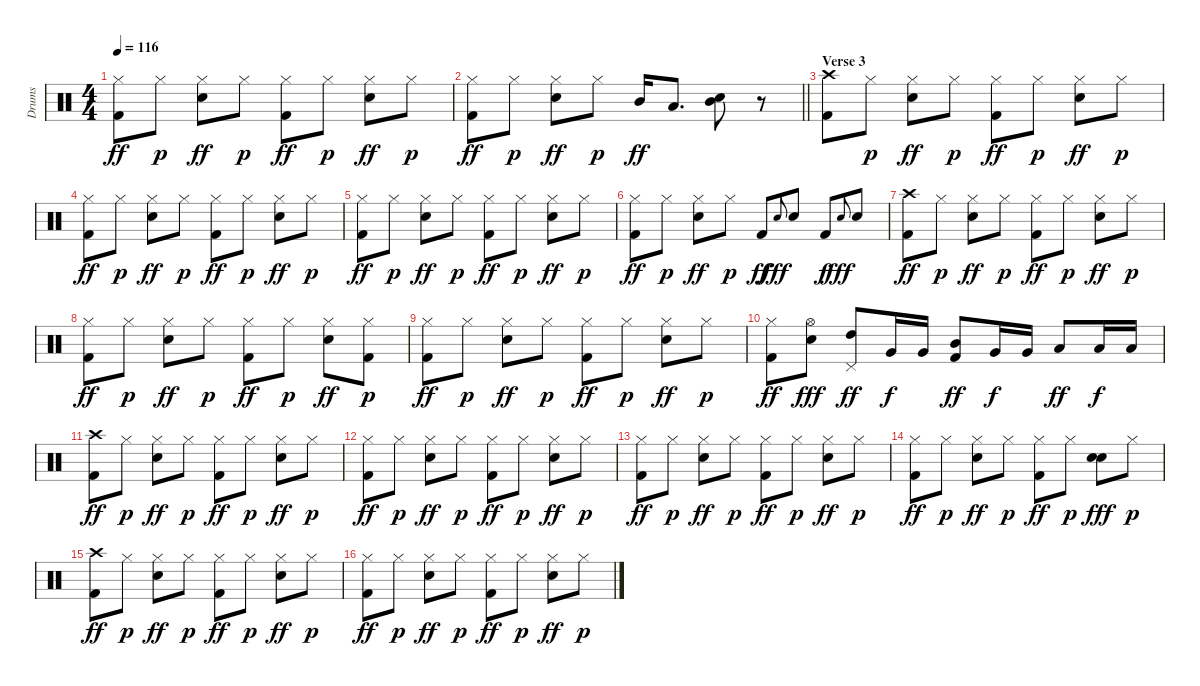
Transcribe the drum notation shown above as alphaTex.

\track ("Drums" "Drums") {instrument percussion}
\staff {score}
\articulation defaults
\ts (4 4)
\tempo 116
\clef neutral
\ks c
("Hi-Hat (closed)" "Kick (hit) 2").8{dy ff} "Hi-Hat (closed)".8{dy p} ("Hi-Hat (closed)" "Snare (hit) 2").8{dy ff} "Hi-Hat (closed)".8{dy p} ("Hi-Hat (closed)" "Kick (hit) 2").8{dy ff} "Hi-Hat (closed)".8{dy p} ("Hi-Hat (closed)" "Snare (hit) 2").8{dy ff} "Hi-Hat (closed)".8{dy p} |
\barLineRight lightlight
("Hi-Hat (closed)" "Kick (hit) 2").8{dy ff} "Hi-Hat (closed)".8{dy p} ("Hi-Hat (closed)" "Snare (hit) 2").8{dy ff} "Hi-Hat (closed)".8{dy p} "Mid Tom (hit)".16{dy ff} "Low Tom (hit)".8{d} ("Mid Tom (hit)" "Snare (hit) 2").8 r.8 |
\section ("" "Verse 3")
("Crash high (hit)" "Kick (hit) 2").8 "Hi-Hat (closed)".8{dy p} ("Hi-Hat (closed)" "Snare (hit) 2").8{dy ff} "Hi-Hat (closed)".8{dy p} ("Hi-Hat (closed)" "Kick (hit) 2").8{dy ff} "Hi-Hat (closed)".8{dy p} ("Hi-Hat (closed)" "Snare (hit) 2").8{dy ff} "Hi-Hat (closed)".8{dy p} |
("Hi-Hat (closed)" "Kick (hit) 2").8{dy ff} "Hi-Hat (closed)".8{dy p} ("Hi-Hat (closed)" "Snare (hit) 2").8{dy ff} "Hi-Hat (closed)".8{dy p} ("Hi-Hat (closed)" "Kick (hit) 2").8{dy ff} "Hi-Hat (closed)".8{dy p} ("Hi-Hat (closed)" "Snare (hit) 2").8{dy ff} "Hi-Hat (closed)".8{dy p} |
("Hi-Hat (closed)" "Kick (hit) 2").8{dy ff} "Hi-Hat (closed)".8{dy p} ("Hi-Hat (closed)" "Snare (hit) 2").8{dy ff} "Hi-Hat (closed)".8{dy p} ("Hi-Hat (closed)" "Kick (hit) 2").8{dy ff} "Hi-Hat (closed)".8{dy p} ("Hi-Hat (closed)" "Snare (hit) 2").8{dy ff} "Hi-Hat (closed)".8{dy p} |
("Hi-Hat (closed)" "Kick (hit) 2").8{dy ff} "Hi-Hat (closed)".8{dy p} ("Hi-Hat (closed)" "Snare (hit) 2").8{dy ff} "Hi-Hat (closed)".8{dy p} "Kick (hit) 2".8{dy ff} "Snare (hit) 2".8{gr onbeat dy fff} "Snare (hit) 2".8 "Kick (hit) 2".8{dy f} "Snare (hit) 2".8{gr onbeat dy fff} "Snare (hit) 2".8 |
("Crash high (hit)" "Kick (hit) 2").8{dy ff} "Hi-Hat (closed)".8{dy p} ("Hi-Hat (closed)" "Snare (hit) 2").8{dy ff} "Hi-Hat (closed)".8{dy p} ("Hi-Hat (closed)" "Kick (hit) 2").8{dy ff} "Hi-Hat (closed)".8{dy p} ("Hi-Hat (closed)" "Snare (hit) 2").8{dy ff} "Hi-Hat (closed)".8{dy p} |
("Hi-Hat (closed)" "Kick (hit) 2").8{dy ff} "Hi-Hat (closed)".8{dy p} ("Hi-Hat (closed)" "Snare (hit) 2").8{dy ff} "Hi-Hat (closed)".8{dy p} ("Hi-Hat (closed)" "Kick (hit) 2").8{dy ff} "Hi-Hat (closed)".8{dy p} ("Hi-Hat (closed)" "Snare (hit) 2").8{dy ff} ("Hi-Hat (closed)" "Kick (hit) 2").8{dy p} |
("Hi-Hat (closed)" "Kick (hit) 2").8{dy ff} "Hi-Hat (closed)".8{dy p} ("Hi-Hat (closed)" "Snare (hit) 2").8{dy ff} "Hi-Hat (closed)".8{dy p} ("Hi-Hat (closed)" "Kick (hit) 2").8{dy ff} "Hi-Hat (closed)".8{dy p} ("Hi-Hat (closed)" "Snare (hit) 2").8{dy ff} "Hi-Hat (closed)".8{dy p} |
("Hi-Hat (closed)" "Kick (hit) 2").8{dy ff} ("Hi-Hat (open)" "Snare (hit) 2").8{dy fff} ("Pedal Hi-Hat (hit)" "High Tom (hit)").8{dy ff} "Very Low Tom (hit)".16{dy f} "Very Low Tom (hit)".16 ("Mid Tom (hit)" "Kick (hit) 2").8{dy ff} "Very Low Tom (hit)".16{dy f} "Very Low Tom (hit)".16 "Low Tom (hit)".8{dy ff} "Low Floor Tom (hit)".16{dy f} "Low Floor Tom (hit)".16 |
("Crash high (hit)" "Kick (hit) 2").8{dy ff} "Hi-Hat (closed)".8{dy p} ("Hi-Hat (closed)" "Snare (hit) 2").8{dy ff} "Hi-Hat (closed)".8{dy p} ("Hi-Hat (closed)" "Kick (hit) 2").8{dy ff} "Hi-Hat (closed)".8{dy p} ("Hi-Hat (closed)" "Snare (hit) 2").8{dy ff} "Hi-Hat (closed)".8{dy p} |
("Hi-Hat (closed)" "Kick (hit) 2").8{dy ff} "Hi-Hat (closed)".8{dy p} ("Hi-Hat (closed)" "Snare (hit) 2").8{dy ff} "Hi-Hat (closed)".8{dy p} ("Hi-Hat (closed)" "Kick (hit) 2").8{dy ff} "Hi-Hat (closed)".8{dy p} ("Hi-Hat (closed)" "Snare (hit) 2").8{dy ff} "Hi-Hat (closed)".8{dy p} |
("Hi-Hat (closed)" "Kick (hit) 2").8{dy ff} "Hi-Hat (closed)".8{dy p} ("Hi-Hat (closed)" "Snare (hit) 2").8{dy ff} "Hi-Hat (closed)".8{dy p} ("Hi-Hat (closed)" "Kick (hit) 2").8{dy ff} "Hi-Hat (closed)".8{dy p} ("Hi-Hat (closed)" "Snare (hit) 2").8{dy ff} "Hi-Hat (closed)".8{dy p} |
("Hi-Hat (closed)" "Kick (hit) 2").8{dy ff} "Hi-Hat (closed)".8{dy p} ("Hi-Hat (closed)" "Snare (hit) 2").8{dy ff} "Hi-Hat (closed)".8{dy p} ("Hi-Hat (closed)" "Kick (hit) 2").8{dy ff} "Hi-Hat (closed)".8{dy p} ("Electric Snare (hit)" "Snare (hit) 2").8{dy fff} "Hi-Hat (closed)".8{dy p} |
("Crash high (hit)" "Kick (hit) 2").8{dy ff} "Hi-Hat (closed)".8{dy p} ("Hi-Hat (closed)" "Snare (hit) 2").8{dy ff} "Hi-Hat (closed)".8{dy p} ("Hi-Hat (closed)" "Kick (hit) 2").8{dy ff} "Hi-Hat (closed)".8{dy p} ("Hi-Hat (closed)" "Snare (hit) 2").8{dy ff} "Hi-Hat (closed)".8{dy p} |
("Hi-Hat (closed)" "Kick (hit) 2").8{dy ff} "Hi-Hat (closed)".8{dy p} ("Hi-Hat (closed)" "Snare (hit) 2").8{dy ff} "Hi-Hat (closed)".8{dy p} ("Hi-Hat (closed)" "Kick (hit) 2").8{dy ff} "Hi-Hat (closed)".8{dy p} ("Hi-Hat (closed)" "Snare (hit) 2").8{dy ff} "Hi-Hat (closed)".8{dy p}
